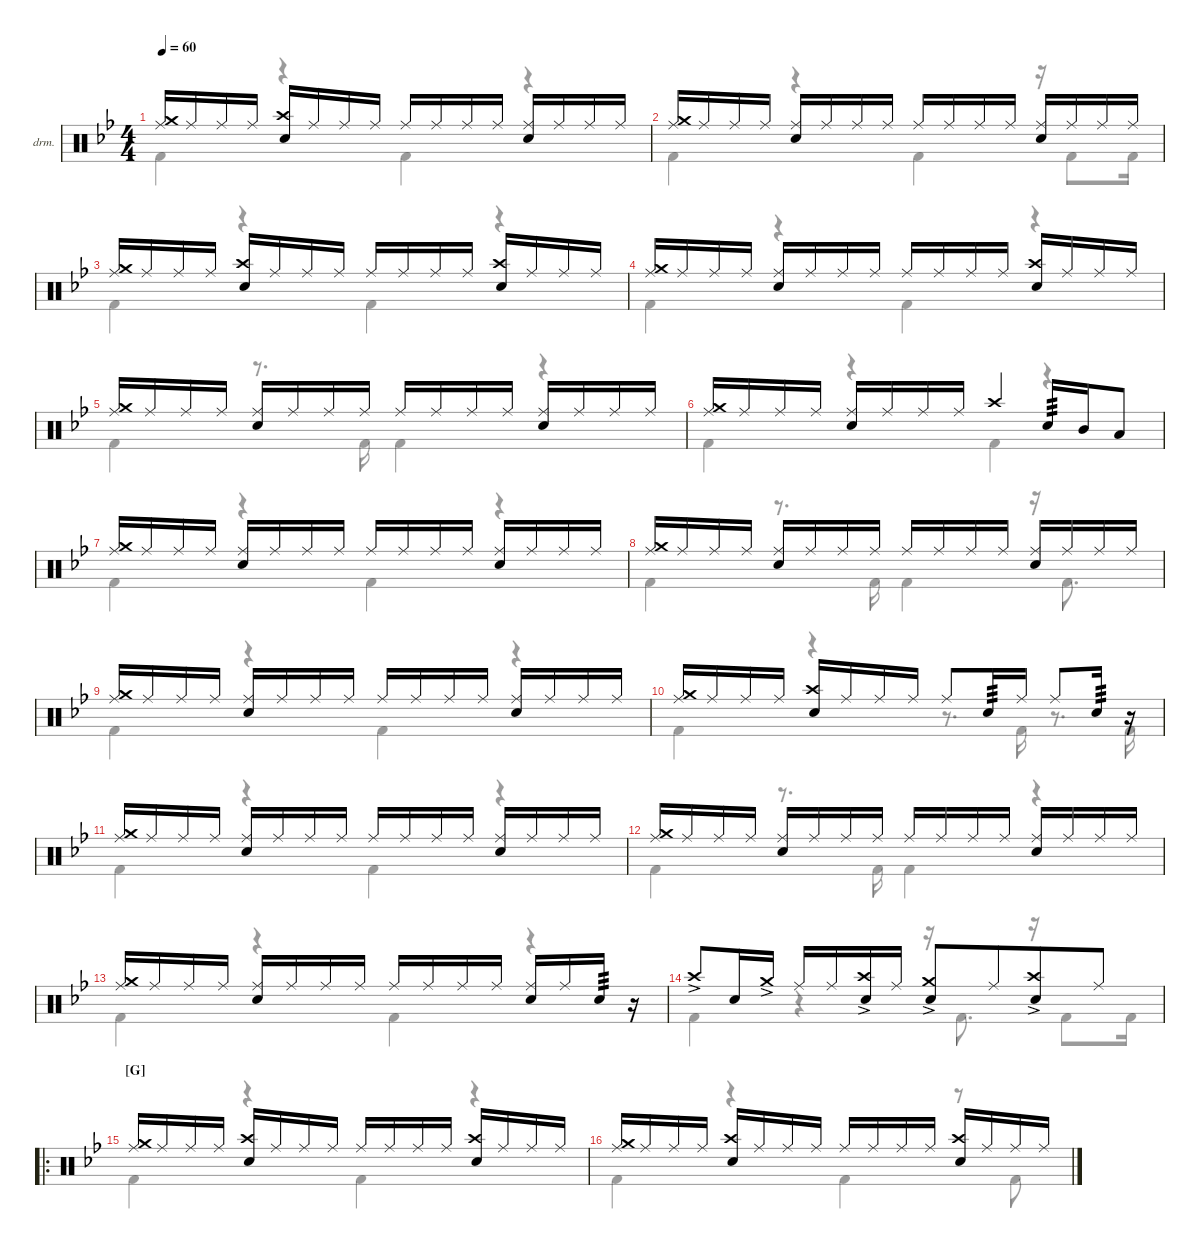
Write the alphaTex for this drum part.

\defaultSystemsLayout 4
\hideDynamics
\bracketExtendMode nobrackets
\firstSystemTrackNameOrientation horizontal
\otherSystemsTrackNameOrientation horizontal
\track ("Drumkit" "drm.") {instrument percussion}
\staff {score}
\articulation defaults
\voice
\ts (4 4)
\tempo 60
\clef neutral
\ks bb
("Crash medium (hit)"{acc forcenatural} "Ride (middle)"{acc forcenatural}).16{dy mf beam Up} "Ride (middle)"{acc forcenatural}.16{dy mp beam Up} "Ride (middle)"{acc forcenatural}.16{dy mf beam Up} "Ride (middle)"{acc forcenatural}.16{dy mp beam Up} ("Snare (hit) 2"{acc forcenatural} "Crash high (hit)"{acc forcenatural}).16{dy mf beam Up} "Ride (middle)"{acc forcenatural}.16{dy mp beam Up} "Ride (middle)"{acc forcenatural}.16{beam Up} "Ride (middle)"{acc forcenatural}.16{dy mf beam Up} "Ride (middle)"{acc forcenatural}.16{beam Up} "Ride (middle)"{acc forcenatural}.16{dy mp beam Up} "Ride (middle)"{acc forcenatural}.16{dy mf beam Up} "Ride (middle)"{acc forcenatural}.16{dy mp beam Up} ("Ride (middle)"{acc forcenatural} "Snare (hit) 2"{acc forcenatural}).16{dy mf beam Up} "Ride (middle)"{acc forcenatural}.16{dy mp beam Up} "Ride (middle)"{acc forcenatural}.16{beam Up} "Ride (middle)"{acc forcenatural}.16{dy mf beam Up} |
("Crash medium (hit)"{acc forcenatural} "Ride (middle)"{acc forcenatural}).16{beam Up} "Ride (middle)"{acc forcenatural}.16{dy mp beam Up} "Ride (middle)"{acc forcenatural}.16{dy mf beam Up} "Ride (middle)"{acc forcenatural}.16{dy mp beam Up} ("Ride (middle)"{acc forcenatural} "Snare (hit) 2"{acc forcenatural}).16{dy mf beam Up} "Ride (middle)"{acc forcenatural}.16{dy mp beam Up} "Ride (middle)"{acc forcenatural}.16{beam Up} "Ride (middle)"{acc forcenatural}.16{dy mf beam Up} "Ride (middle)"{acc forcenatural}.16{beam Up} "Ride (middle)"{acc forcenatural}.16{dy mp beam Up} "Ride (middle)"{acc forcenatural}.16{dy mf beam Up} "Ride (middle)"{acc forcenatural}.16{dy mp beam Up} ("Ride (middle)"{acc forcenatural} "Snare (hit) 2"{acc forcenatural}).16{dy mf beam Up} "Ride (middle)"{acc forcenatural}.16{dy mp beam Up} "Ride (middle)"{acc forcenatural}.16{beam Up} "Ride (middle)"{acc forcenatural}.16{dy mf beam Up} |
("Crash medium (hit)"{acc forcenatural} "Ride (middle)"{acc forcenatural}).16{beam Up} "Ride (middle)"{acc forcenatural}.16{dy mp beam Up} "Ride (middle)"{acc forcenatural}.16{dy mf beam Up} "Ride (middle)"{acc forcenatural}.16{dy mp beam Up} ("Snare (hit) 2"{acc forcenatural} "Crash high (hit)"{acc forcenatural}).16{dy mf beam Up} "Ride (middle)"{acc forcenatural}.16{dy mp beam Up} "Ride (middle)"{acc forcenatural}.16{beam Up} "Ride (middle)"{acc forcenatural}.16{dy mf beam Up} "Ride (middle)"{acc forcenatural}.16{beam Up} "Ride (middle)"{acc forcenatural}.16{dy mp beam Up} "Ride (middle)"{acc forcenatural}.16{dy mf beam Up} "Ride (middle)"{acc forcenatural}.16{dy mp beam Up} ("Snare (hit) 2"{acc forcenatural} "Crash high (hit)"{acc forcenatural}).16{dy mf beam Up} "Ride (middle)"{acc forcenatural}.16{dy mp beam Up} "Ride (middle)"{acc forcenatural}.16{beam Up} "Ride (middle)"{acc forcenatural}.16{dy mf beam Up} |
("Crash medium (hit)"{acc forcenatural} "Ride (middle)"{acc forcenatural}).16{beam Up} "Ride (middle)"{acc forcenatural}.16{dy mp beam Up} "Ride (middle)"{acc forcenatural}.16{dy mf beam Up} "Ride (middle)"{acc forcenatural}.16{dy mp beam Up} ("Ride (middle)"{acc forcenatural} "Snare (hit) 2"{acc forcenatural}).16{dy mf beam Up} "Ride (middle)"{acc forcenatural}.16{dy mp beam Up} "Ride (middle)"{acc forcenatural}.16{beam Up} "Ride (middle)"{acc forcenatural}.16{dy mf beam Up} "Ride (middle)"{acc forcenatural}.16{beam Up} "Ride (middle)"{acc forcenatural}.16{dy mp beam Up} "Ride (middle)"{acc forcenatural}.16{dy mf beam Up} "Ride (middle)"{acc forcenatural}.16{dy mp beam Up} ("Snare (hit) 2"{acc forcenatural} "Crash high (hit)"{acc forcenatural}).16{dy mf beam Up} "Ride (middle)"{acc forcenatural}.16{dy mp beam Up} "Ride (middle)"{acc forcenatural}.16{beam Up} "Ride (middle)"{acc forcenatural}.16{dy mf beam Up} |
("Ride (middle)"{acc forcenatural} "Crash medium (hit)"{acc forcenatural}).16{beam Up} "Ride (middle)"{acc forcenatural}.16{dy mp beam Up} "Ride (middle)"{acc forcenatural}.16{dy mf beam Up} "Ride (middle)"{acc forcenatural}.16{dy mp beam Up} ("Ride (middle)"{acc forcenatural} "Snare (hit) 2"{acc forcenatural}).16{dy mf beam Up} "Ride (middle)"{acc forcenatural}.16{dy mp beam Up} "Ride (middle)"{acc forcenatural}.16{beam Up} "Ride (middle)"{acc forcenatural}.16{dy mf beam Up} "Ride (middle)"{acc forcenatural}.16{beam Up} "Ride (middle)"{acc forcenatural}.16{dy mp beam Up} "Ride (middle)"{acc forcenatural}.16{dy mf beam Up} "Ride (middle)"{acc forcenatural}.16{dy mp beam Up} ("Ride (middle)"{acc forcenatural} "Snare (hit) 2"{acc forcenatural}).16{dy mf beam Up} "Ride (middle)"{acc forcenatural}.16{dy mp beam Up} "Ride (middle)"{acc forcenatural}.16{beam Up} "Ride (middle)"{acc forcenatural}.16{dy mf beam Up} |
("Crash medium (hit)"{acc forcenatural} "Ride (middle)"{acc forcenatural}).16{beam Up} "Ride (middle)"{acc forcenatural}.16{dy mp beam Up} "Ride (middle)"{acc forcenatural}.16{dy mf beam Up} "Ride (middle)"{acc forcenatural}.16{dy mp beam Up} ("Ride (middle)"{acc forcenatural} "Snare (hit) 2"{acc forcenatural}).16{dy mf beam Up} "Ride (middle)"{acc forcenatural}.16{dy mp beam Up} "Ride (middle)"{acc forcenatural}.16{beam Up} "Ride (middle)"{acc forcenatural}.16{dy mf beam Up} "Crash high (hit)"{acc forcenatural}.4{beam Up} "Snare (hit) 2"{acc forcenatural}.16{tp 3 beam Up} "Mid Tom (hit)"{acc forcenatural}.16{dy ff beam Up} "Low Tom (hit)"{acc forcenatural}.8{dy fff beam Up} |
("Crash medium (hit)"{acc forcenatural} "Ride (middle)"{acc forcenatural}).16{dy mf beam Up} "Ride (middle)"{acc forcenatural}.16{dy mp beam Up} "Ride (middle)"{acc forcenatural}.16{dy mf beam Up} "Ride (middle)"{acc forcenatural}.16{dy mp beam Up} ("Ride (middle)"{acc forcenatural} "Snare (hit) 2"{acc forcenatural}).16{dy mf beam Up} "Ride (middle)"{acc forcenatural}.16{dy mp beam Up} "Ride (middle)"{acc forcenatural}.16{beam Up} "Ride (middle)"{acc forcenatural}.16{dy mf beam Up} "Ride (middle)"{acc forcenatural}.16{beam Up} "Ride (middle)"{acc forcenatural}.16{dy mp beam Up} "Ride (middle)"{acc forcenatural}.16{dy mf beam Up} "Ride (middle)"{acc forcenatural}.16{dy mp beam Up} ("Ride (middle)"{acc forcenatural} "Snare (hit) 2"{acc forcenatural}).16{dy mf beam Up} "Ride (middle)"{acc forcenatural}.16{dy mp beam Up} "Ride (middle)"{acc forcenatural}.16{beam Up} "Ride (middle)"{acc forcenatural}.16{dy mf beam Up} |
("Crash medium (hit)"{acc forcenatural} "Ride (middle)"{acc forcenatural}).16{beam Up} "Ride (middle)"{acc forcenatural}.16{dy mp beam Up} "Ride (middle)"{acc forcenatural}.16{dy mf beam Up} "Ride (middle)"{acc forcenatural}.16{dy mp beam Up} ("Ride (middle)"{acc forcenatural} "Snare (hit) 2"{acc forcenatural}).16{dy mf beam Up} "Ride (middle)"{acc forcenatural}.16{dy mp beam Up} "Ride (middle)"{acc forcenatural}.16{beam Up} "Ride (middle)"{acc forcenatural}.16{dy mf beam Up} "Ride (middle)"{acc forcenatural}.16{beam Up} "Ride (middle)"{acc forcenatural}.16{dy mp beam Up} "Ride (middle)"{acc forcenatural}.16{dy mf beam Up} "Ride (middle)"{acc forcenatural}.16{dy mp beam Up} ("Ride (middle)"{acc forcenatural} "Snare (hit) 2"{acc forcenatural}).16{dy mf beam Up} "Ride (middle)"{acc forcenatural}.16{dy mp beam Up} "Ride (middle)"{acc forcenatural}.16{beam Up} "Ride (middle)"{acc forcenatural}.16{dy mf beam Up} |
("Crash medium (hit)"{acc forcenatural} "Ride (middle)"{acc forcenatural}).16{beam Up} "Ride (middle)"{acc forcenatural}.16{dy mp beam Up} "Ride (middle)"{acc forcenatural}.16{dy mf beam Up} "Ride (middle)"{acc forcenatural}.16{dy mp beam Up} ("Ride (middle)"{acc forcenatural} "Snare (hit) 2"{acc forcenatural}).16{dy mf beam Up} "Ride (middle)"{acc forcenatural}.16{dy mp beam Up} "Ride (middle)"{acc forcenatural}.16{beam Up} "Ride (middle)"{acc forcenatural}.16{dy mf beam Up} "Ride (middle)"{acc forcenatural}.16{beam Up} "Ride (middle)"{acc forcenatural}.16{dy mp beam Up} "Ride (middle)"{acc forcenatural}.16{dy mf beam Up} "Ride (middle)"{acc forcenatural}.16{dy mp beam Up} ("Ride (middle)"{acc forcenatural} "Snare (hit) 2"{acc forcenatural}).16{dy mf beam Up} "Ride (middle)"{acc forcenatural}.16{dy mp beam Up} "Ride (middle)"{acc forcenatural}.16{beam Up} "Ride (middle)"{acc forcenatural}.16{dy mf beam Up} |
("Crash medium (hit)"{acc forcenatural} "Ride (middle)"{acc forcenatural}).16{beam Up} "Ride (middle)"{acc forcenatural}.16{dy mp beam Up} "Ride (middle)"{acc forcenatural}.16{dy mf beam Up} "Ride (middle)"{acc forcenatural}.16{dy mp beam Up} ("Snare (hit) 2"{acc forcenatural} "Crash high (hit)"{acc forcenatural}).16{dy mf beam Up} "Ride (middle)"{acc forcenatural}.16{dy mp beam Up} "Ride (middle)"{acc forcenatural}.16{beam Up} "Ride (middle)"{acc forcenatural}.16{dy mf beam Up} "Ride (middle)"{acc forcenatural}.8{beam Up} "Snare (hit) 2"{acc forcenatural}.16{tp 3 beam Up} "Ride (middle)"{acc forcenatural}.16{beam Up} "Ride (middle)"{acc forcenatural}.8{beam Up} "Snare (hit) 2"{acc forcenatural}.16{tp 3 beam Up} r.16{beam Up} |
("Crash medium (hit)"{acc forcenatural} "Ride (middle)"{acc forcenatural}).16{beam Up} "Ride (middle)"{acc forcenatural}.16{dy mp beam Up} "Ride (middle)"{acc forcenatural}.16{dy mf beam Up} "Ride (middle)"{acc forcenatural}.16{dy mp beam Up} ("Ride (middle)"{acc forcenatural} "Snare (hit) 2"{acc forcenatural}).16{dy mf beam Up} "Ride (middle)"{acc forcenatural}.16{dy mp beam Up} "Ride (middle)"{acc forcenatural}.16{beam Up} "Ride (middle)"{acc forcenatural}.16{dy mf beam Up} "Ride (middle)"{acc forcenatural}.16{beam Up} "Ride (middle)"{acc forcenatural}.16{dy mp beam Up} "Ride (middle)"{acc forcenatural}.16{dy mf beam Up} "Ride (middle)"{acc forcenatural}.16{dy mp beam Up} ("Ride (middle)"{acc forcenatural} "Snare (hit) 2"{acc forcenatural}).16{dy mf beam Up} "Ride (middle)"{acc forcenatural}.16{dy mp beam Up} "Ride (middle)"{acc forcenatural}.16{beam Up} "Ride (middle)"{acc forcenatural}.16{dy mf beam Up} |
("Crash medium (hit)"{acc forcenatural} "Ride (middle)"{acc forcenatural}).16{beam Up} "Ride (middle)"{acc forcenatural}.16{dy mp beam Up} "Ride (middle)"{acc forcenatural}.16{dy mf beam Up} "Ride (middle)"{acc forcenatural}.16{dy mp beam Up} ("Ride (middle)"{acc forcenatural} "Snare (hit) 2"{acc forcenatural}).16{dy mf beam Up} "Ride (middle)"{acc forcenatural}.16{dy mp beam Up} "Ride (middle)"{acc forcenatural}.16{beam Up} "Ride (middle)"{acc forcenatural}.16{dy mf beam Up} "Ride (middle)"{acc forcenatural}.16{beam Up} "Ride (middle)"{acc forcenatural}.16{dy mp beam Up} "Ride (middle)"{acc forcenatural}.16{dy mf beam Up} "Ride (middle)"{acc forcenatural}.16{dy mp beam Up} ("Ride (middle)"{acc forcenatural} "Snare (hit) 2"{acc forcenatural}).16{dy mf beam Up} "Ride (middle)"{acc forcenatural}.16{dy mp beam Up} "Ride (middle)"{acc forcenatural}.16{beam Up} "Ride (middle)"{acc forcenatural}.16{dy mf beam Up} |
("Crash medium (hit)"{acc forcenatural} "Ride (middle)"{acc forcenatural}).16{beam Up} "Ride (middle)"{acc forcenatural}.16{dy mp beam Up} "Ride (middle)"{acc forcenatural}.16{dy mf beam Up} "Ride (middle)"{acc forcenatural}.16{dy mp beam Up} ("Ride (middle)"{acc forcenatural} "Snare (hit) 2"{acc forcenatural}).16{dy mf beam Up} "Ride (middle)"{acc forcenatural}.16{dy mp beam Up} "Ride (middle)"{acc forcenatural}.16{beam Up} "Ride (middle)"{acc forcenatural}.16{dy mf beam Up} "Ride (middle)"{acc forcenatural}.16{beam Up} "Ride (middle)"{acc forcenatural}.16{dy mp beam Up} "Ride (middle)"{acc forcenatural}.16{dy mf beam Up} "Ride (middle)"{acc forcenatural}.16{dy mp beam Up} ("Ride (middle)"{acc forcenatural} "Snare (hit) 2"{acc forcenatural}).16{dy mf beam Up} "Ride (middle)"{acc forcenatural}.16{dy mp beam Up} "Snare (hit) 2"{acc forcenatural}.16{tp 3 beam Up} r.16{beam Up} |
"Crash high (hit)"{ac acc forcenatural}.8{beam Up} "Snare (hit) 2"{acc forcenatural}.16{beam Up} "Crash medium (hit)"{ac acc forcenatural}.16{beam Up} "Ride (middle)"{acc forcenatural}.16{beam Up} "Ride (middle)"{acc forcenatural}.16{beam Up} ("Snare (hit) 2"{acc forcenatural} "Crash high (hit)"{ac acc forcenatural}).16{beam Up} "Ride (middle)"{acc forcenatural}.16{beam Up} ("Crash medium (hit)"{ac acc forcenatural} "Snare (hit) 2"{acc forcenatural}).8{beam Up} "Ride (middle)"{acc forcenatural}.8{beam Up beam merge} ("Snare (hit) 2"{acc forcenatural} "Crash high (hit)"{ac acc forcenatural}).8{beam Up} "Ride (middle)"{acc forcenatural}.8{beam Up} |
\ro
\section ("G" "")
("Crash medium (hit)"{acc forcenatural} "Ride (middle)"{acc forcenatural}).16{dy mf beam Up} "Ride (middle)"{acc forcenatural}.16{dy mp beam Up} "Ride (middle)"{acc forcenatural}.16{dy mf beam Up} "Ride (middle)"{acc forcenatural}.16{dy mp beam Up} ("Snare (hit) 2"{acc forcenatural} "Crash high (hit)"{acc forcenatural}).16{dy mf beam Up} "Ride (middle)"{acc forcenatural}.16{dy mp beam Up} "Ride (middle)"{acc forcenatural}.16{beam Up} "Ride (middle)"{acc forcenatural}.16{dy mf beam Up} "Ride (middle)"{acc forcenatural}.16{beam Up} "Ride (middle)"{acc forcenatural}.16{dy mp beam Up} "Ride (middle)"{acc forcenatural}.16{dy mf beam Up} "Ride (middle)"{acc forcenatural}.16{dy mp beam Up} ("Snare (hit) 2"{acc forcenatural} "Crash high (hit)"{acc forcenatural}).16{dy mf beam Up} "Ride (middle)"{acc forcenatural}.16{dy mp beam Up} "Ride (middle)"{acc forcenatural}.16{beam Up} "Ride (middle)"{acc forcenatural}.16{dy mf beam Up} |
("Crash medium (hit)"{acc forcenatural} "Ride (middle)"{acc forcenatural}).16{beam Up} "Ride (middle)"{acc forcenatural}.16{dy mp beam Up} "Ride (middle)"{acc forcenatural}.16{dy mf beam Up} "Ride (middle)"{acc forcenatural}.16{dy mp beam Up} ("Snare (hit) 2"{acc forcenatural} "Crash high (hit)"{acc forcenatural}).16{dy mf beam Up} "Ride (middle)"{acc forcenatural}.16{dy mp beam Up} "Ride (middle)"{acc forcenatural}.16{beam Up} "Ride (middle)"{acc forcenatural}.16{dy mf beam Up} "Ride (middle)"{acc forcenatural}.16{beam Up} "Ride (middle)"{acc forcenatural}.16{dy mp beam Up} "Ride (middle)"{acc forcenatural}.16{dy mf beam Up} "Ride (middle)"{acc forcenatural}.16{dy mp beam Up} ("Snare (hit) 2"{acc forcenatural} "Crash high (hit)"{acc forcenatural}).16{dy mf beam Up} "Ride (middle)"{acc forcenatural}.16{dy mp beam Up} "Ride (middle)"{acc forcenatural}.16{beam Up} "Ride (middle)"{acc forcenatural}.16{dy mf beam Up}
\voice
\clef neutral
\ottava regular
\simile none
\ks bb "Kick (hit) 2"{acc forcenatural}.4{dy mf beam Down}
r.4{beam Down} "Kick (hit) 2"{acc forcenatural}.4{beam Down} r.4{beam Down} |
"Kick (hit) 2"{acc forcenatural}.4{beam Down} r.4{beam Down} "Kick (hit) 2"{acc forcenatural}.4{beam Down} r.16{beam Down} "Kick (hit) 2"{acc forcenatural}.8{beam Down} "Kick (hit) 2"{acc forcenatural}.16{beam Down} |
"Kick (hit) 2"{acc forcenatural}.4{beam Down} r.4{beam Down} "Kick (hit) 2"{acc forcenatural}.4{beam Down} r.4{beam Down} |
"Kick (hit) 2"{acc forcenatural}.4{beam Down} r.4{beam Down} "Kick (hit) 2"{acc forcenatural}.4{beam Down} r.4{beam Down} |
"Kick (hit) 2"{acc forcenatural}.4{beam Down} r.8{d beam Down} "Kick (hit) 2"{acc forcenatural}.16{beam Down} "Kick (hit) 2"{acc forcenatural}.4{beam Down} r.4{beam Down} |
"Kick (hit) 2"{acc forcenatural}.4{beam Down} r.4{beam Down} "Kick (hit) 2"{acc forcenatural}.4{beam Down} r.4{beam Down} |
"Kick (hit) 2"{acc forcenatural}.4{beam Down} r.4{beam Down} "Kick (hit) 2"{acc forcenatural}.4{beam Down} r.4{beam Down} |
"Kick (hit) 2"{acc forcenatural}.4{beam Down} r.8{d beam Down} "Kick (hit) 2"{acc forcenatural}.16{beam Down} "Kick (hit) 2"{acc forcenatural}.4{beam Down} r.16{beam Down} "Kick (hit) 2"{acc forcenatural}.8{d beam Down} |
"Kick (hit) 2"{acc forcenatural}.4{beam Down} r.4{beam Down} "Kick (hit) 2"{acc forcenatural}.4{beam Down} r.4{beam Down} |
"Kick (hit) 2"{acc forcenatural}.4{beam Down} r.4{beam Down} r.8{d beam Down} "Kick (hit) 2"{acc forcenatural}.16{beam Down} r.8{d beam Down} "Kick (hit) 2"{acc forcenatural}.16{beam Down} |
"Kick (hit) 2"{acc forcenatural}.4{beam Down} r.4{beam Down} "Kick (hit) 2"{acc forcenatural}.4{beam Down} r.4{beam Down} |
"Kick (hit) 2"{acc forcenatural}.4{beam Down} r.8{d beam Down} "Kick (hit) 2"{acc forcenatural}.16{beam Down} "Kick (hit) 2"{acc forcenatural}.4{beam Down} r.4{beam Down} |
"Kick (hit) 2"{acc forcenatural}.4{beam Down} r.4{beam Down} "Kick (hit) 2"{acc forcenatural}.4{beam Down} r.4{beam Down} |
"Kick (hit) 2"{acc forcenatural}.4{beam Down} r.4{beam Down} r.16{beam Down} "Kick (hit) 2"{acc forcenatural}.8{d beam Down} r.16{beam Down} "Kick (hit) 2"{acc forcenatural}.8{beam Down} "Kick (hit) 2"{acc forcenatural}.16{beam Down} |
"Kick (hit) 2"{acc forcenatural}.4{beam Down} r.4{beam Down} "Kick (hit) 2"{acc forcenatural}.4{beam Down} r.4{beam Down} |
"Kick (hit) 2"{acc forcenatural}.4{beam Down} r.4{beam Down} "Kick (hit) 2"{acc forcenatural}.4{beam Down} r.8{beam Down} "Kick (hit) 2"{acc forcenatural}.8{beam Down}
